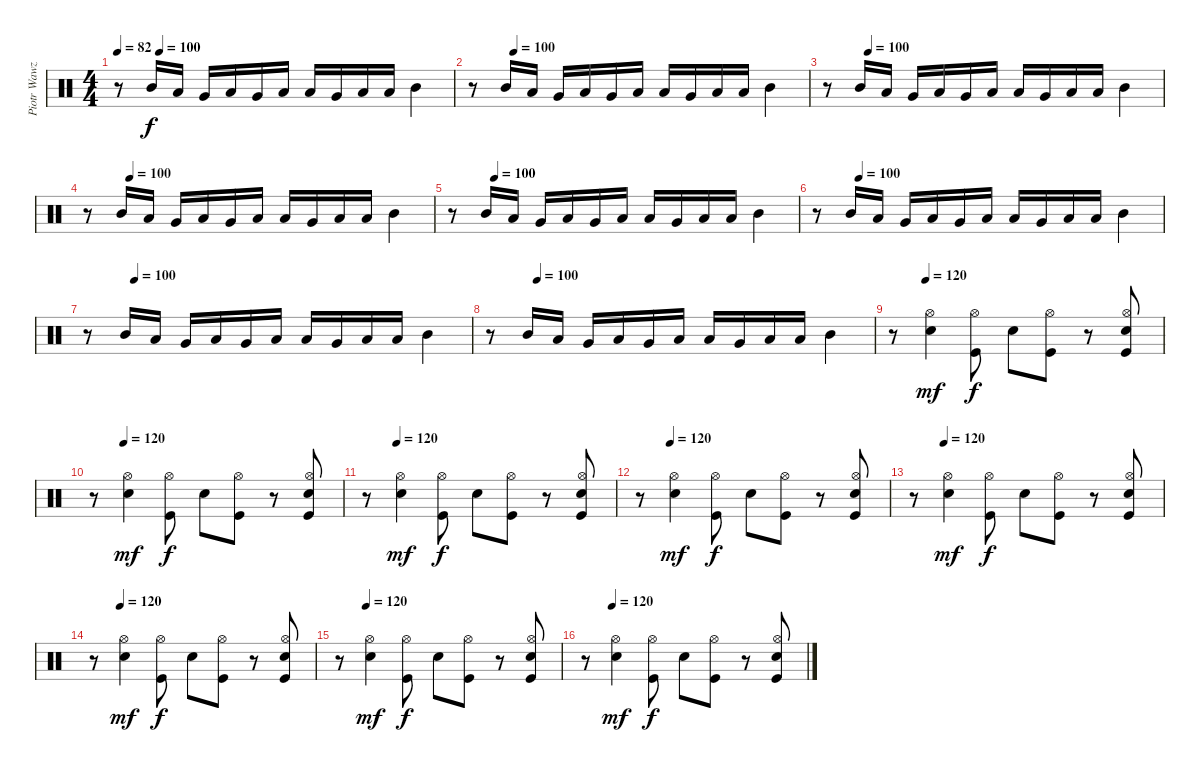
\track ("Piotr Wawzeniuk (Drums)" "Piotr Wawz") {instrument percussion}
\staff {score}
\articulation defaults
\ts (4 4)
\tempo 82
\tempo (100 0.125)
\clef neutral
\ks c
r.8{dy f} "Mid Tom (hit)".16 "Low Tom (hit)".16 "Very Low Tom (hit)".16 "Low Tom (hit)".16 "Very Low Tom (hit)".16 "Low Floor Tom (hit)".16 "Low Tom (hit)".16 "Very Low Tom (hit)".16 "Low Floor Tom (hit)".16 "Low Tom (hit)".16 "Mid Tom (hit)".4 |
\tempo (100 0.125)
r.8 "Mid Tom (hit)".16 "Low Tom (hit)".16 "Very Low Tom (hit)".16 "Low Tom (hit)".16 "Very Low Tom (hit)".16 "Low Floor Tom (hit)".16 "Low Tom (hit)".16 "Very Low Tom (hit)".16 "Low Floor Tom (hit)".16 "Low Tom (hit)".16 "Mid Tom (hit)".4 |
\tempo (100 0.125)
r.8 "Mid Tom (hit)".16 "Low Tom (hit)".16 "Very Low Tom (hit)".16 "Low Tom (hit)".16 "Very Low Tom (hit)".16 "Low Floor Tom (hit)".16 "Low Tom (hit)".16 "Very Low Tom (hit)".16 "Low Floor Tom (hit)".16 "Low Tom (hit)".16 "Mid Tom (hit)".4 |
\tempo (100 0.125)
r.8 "Mid Tom (hit)".16 "Low Tom (hit)".16 "Very Low Tom (hit)".16 "Low Tom (hit)".16 "Very Low Tom (hit)".16 "Low Floor Tom (hit)".16 "Low Tom (hit)".16 "Very Low Tom (hit)".16 "Low Floor Tom (hit)".16 "Low Tom (hit)".16 "Mid Tom (hit)".4 |
\tempo (100 0.125)
r.8 "Mid Tom (hit)".16 "Low Tom (hit)".16 "Very Low Tom (hit)".16 "Low Tom (hit)".16 "Very Low Tom (hit)".16 "Low Floor Tom (hit)".16 "Low Tom (hit)".16 "Very Low Tom (hit)".16 "Low Floor Tom (hit)".16 "Low Tom (hit)".16 "Mid Tom (hit)".4 |
\tempo (100 0.125)
r.8 "Mid Tom (hit)".16 "Low Tom (hit)".16 "Very Low Tom (hit)".16 "Low Tom (hit)".16 "Very Low Tom (hit)".16 "Low Floor Tom (hit)".16 "Low Tom (hit)".16 "Very Low Tom (hit)".16 "Low Floor Tom (hit)".16 "Low Tom (hit)".16 "Mid Tom (hit)".4 |
\tempo (100 0.125)
r.8 "Mid Tom (hit)".16 "Low Tom (hit)".16 "Very Low Tom (hit)".16 "Low Tom (hit)".16 "Very Low Tom (hit)".16 "Low Floor Tom (hit)".16 "Low Tom (hit)".16 "Very Low Tom (hit)".16 "Low Floor Tom (hit)".16 "Low Tom (hit)".16 "Mid Tom (hit)".4 |
\tempo (100 0.125)
r.8 "Mid Tom (hit)".16 "Low Tom (hit)".16 "Very Low Tom (hit)".16 "Low Tom (hit)".16 "Very Low Tom (hit)".16 "Low Floor Tom (hit)".16 "Low Tom (hit)".16 "Very Low Tom (hit)".16 "Low Floor Tom (hit)".16 "Low Tom (hit)".16 "Mid Tom (hit)".4 |
\tempo (120 0.125)
r.8 ("Electric Snare (hit)" "Hi-Hat (open)").4{dy mf} ("Kick (hit)" "Hi-Hat (open)").8{dy f} "Electric Snare (hit)".8 ("Kick (hit)" "Hi-Hat (open)").8 r.8 ("Kick (hit)" "Electric Snare (hit)" "Hi-Hat (open)").8 |
\tempo (120 0.125)
r.8 ("Electric Snare (hit)" "Hi-Hat (open)").4{dy mf} ("Kick (hit)" "Hi-Hat (open)").8{dy f} "Electric Snare (hit)".8 ("Kick (hit)" "Hi-Hat (open)").8 r.8 ("Kick (hit)" "Electric Snare (hit)" "Hi-Hat (open)").8 |
\tempo (120 0.125)
r.8 ("Electric Snare (hit)" "Hi-Hat (open)").4{dy mf} ("Kick (hit)" "Hi-Hat (open)").8{dy f} "Electric Snare (hit)".8 ("Kick (hit)" "Hi-Hat (open)").8 r.8 ("Kick (hit)" "Electric Snare (hit)" "Hi-Hat (open)").8 |
\tempo (120 0.125)
r.8 ("Electric Snare (hit)" "Hi-Hat (open)").4{dy mf} ("Kick (hit)" "Hi-Hat (open)").8{dy f} "Electric Snare (hit)".8 ("Kick (hit)" "Hi-Hat (open)").8 r.8 ("Kick (hit)" "Electric Snare (hit)" "Hi-Hat (open)").8 |
\tempo (120 0.125)
r.8 ("Electric Snare (hit)" "Hi-Hat (open)").4{dy mf} ("Kick (hit)" "Hi-Hat (open)").8{dy f} "Electric Snare (hit)".8 ("Kick (hit)" "Hi-Hat (open)").8 r.8 ("Kick (hit)" "Electric Snare (hit)" "Hi-Hat (open)").8 |
\tempo (120 0.125)
r.8 ("Electric Snare (hit)" "Hi-Hat (open)").4{dy mf} ("Kick (hit)" "Hi-Hat (open)").8{dy f} "Electric Snare (hit)".8 ("Kick (hit)" "Hi-Hat (open)").8 r.8 ("Kick (hit)" "Electric Snare (hit)" "Hi-Hat (open)").8 |
\tempo (120 0.125)
r.8 ("Electric Snare (hit)" "Hi-Hat (open)").4{dy mf} ("Kick (hit)" "Hi-Hat (open)").8{dy f} "Electric Snare (hit)".8 ("Kick (hit)" "Hi-Hat (open)").8 r.8 ("Kick (hit)" "Electric Snare (hit)" "Hi-Hat (open)").8 |
\tempo (120 0.125)
r.8 ("Electric Snare (hit)" "Hi-Hat (open)").4{dy mf} ("Kick (hit)" "Hi-Hat (open)").8{dy f} "Electric Snare (hit)".8 ("Kick (hit)" "Hi-Hat (open)").8 r.8 ("Kick (hit)" "Electric Snare (hit)" "Hi-Hat (open)").8
